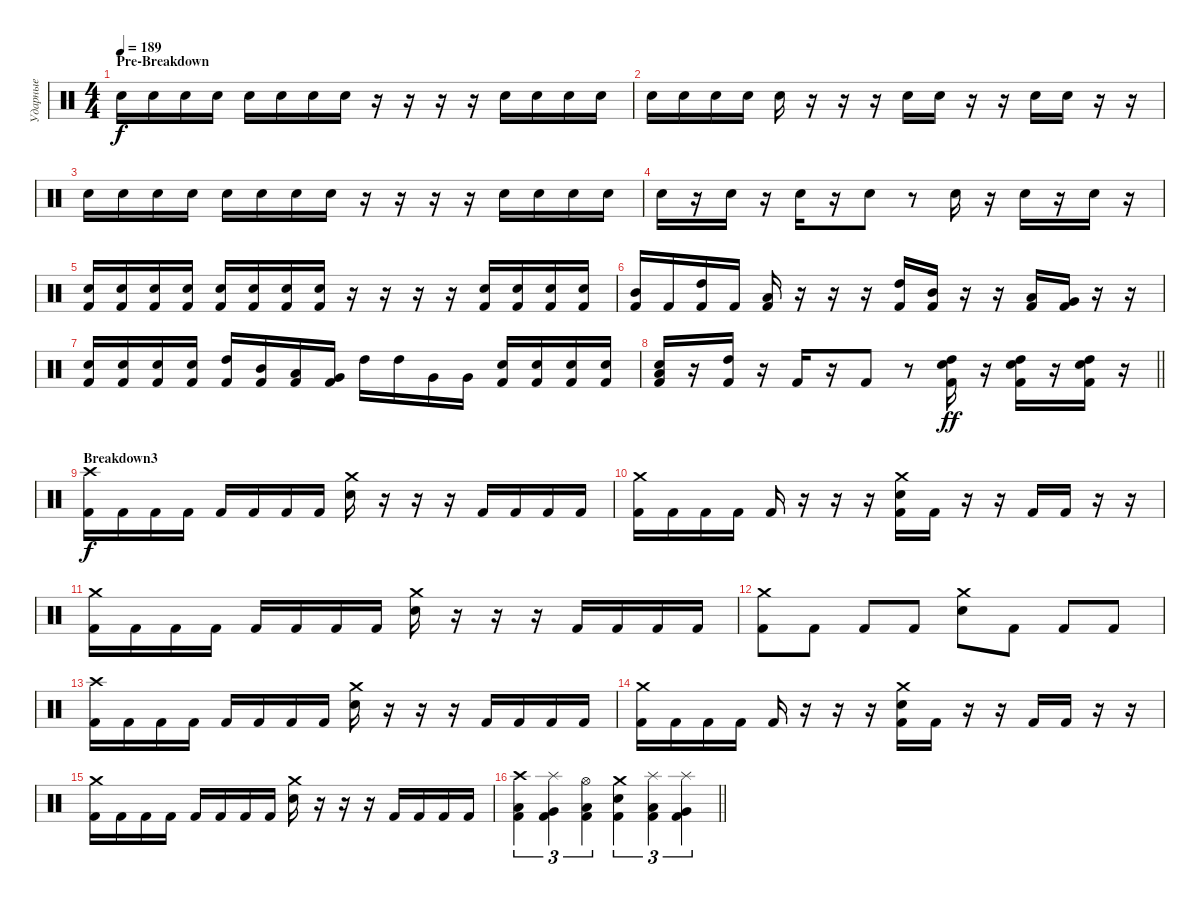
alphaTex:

\track ("Ударные" "Ударные") {instrument percussion}
\staff {score}
\articulation defaults
\ts (4 4)
\section ("" "Pre-Breakdown")
\tempo 189
\clef neutral
\ks c "Electric Snare (hit)".16{dy f} "Electric Snare (hit)".16 "Electric Snare (hit)".16 "Electric Snare (hit)".16 "Electric Snare (hit)".16 "Electric Snare (hit)".16 "Electric Snare (hit)".16 "Electric Snare (hit)".16
r.16 r.16 r.16 r.16 "Electric Snare (hit)".16 "Electric Snare (hit)".16 "Electric Snare (hit)".16 "Electric Snare (hit)".16 |
"Electric Snare (hit)".16 "Electric Snare (hit)".16 "Electric Snare (hit)".16 "Electric Snare (hit)".16 "Electric Snare (hit)".16 r.16 r.16 r.16 "Electric Snare (hit)".16 "Electric Snare (hit)".16 r.16 r.16 "Electric Snare (hit)".16 "Electric Snare (hit)".16 r.16 r.16 |
"Electric Snare (hit)".16 "Electric Snare (hit)".16 "Electric Snare (hit)".16 "Electric Snare (hit)".16 "Electric Snare (hit)".16 "Electric Snare (hit)".16 "Electric Snare (hit)".16 "Electric Snare (hit)".16 r.16 r.16 r.16 r.16 "Electric Snare (hit)".16 "Electric Snare (hit)".16 "Electric Snare (hit)".16 "Electric Snare (hit)".16 |
"Electric Snare (hit)".16 r.16 "Electric Snare (hit)".16 r.16 "Electric Snare (hit)".16 r.16 "Electric Snare (hit)".8 r.8 "Electric Snare (hit)".16 r.16 "Electric Snare (hit)".16 r.16 "Electric Snare (hit)".16 r.16 |
("Electric Snare (hit)" "Kick (hit) 2").16 ("Electric Snare (hit)" "Kick (hit) 2").16 ("Electric Snare (hit)" "Kick (hit) 2").16 ("Electric Snare (hit)" "Kick (hit) 2").16 ("Electric Snare (hit)" "Kick (hit) 2").16 ("Electric Snare (hit)" "Kick (hit) 2").16 ("Electric Snare (hit)" "Kick (hit) 2").16 ("Electric Snare (hit)" "Kick (hit) 2").16 r.16 r.16 r.16 r.16 ("Electric Snare (hit)" "Kick (hit) 2").16 ("Electric Snare (hit)" "Kick (hit) 2").16 ("Electric Snare (hit)" "Kick (hit) 2").16 ("Electric Snare (hit)" "Kick (hit) 2").16 |
("Mid Tom (hit)" "Kick (hit) 2").16 "Kick (hit) 2".16 ("High Tom (hit)" "Kick (hit) 2").16 "Kick (hit) 2".16 ("Low Tom (hit)" "Kick (hit) 2").16 r.16 r.16 r.16 ("High Tom (hit)" "Kick (hit) 2").16 ("Mid Tom (hit)" "Kick (hit) 2").16 r.16 r.16 ("Low Tom (hit)" "Kick (hit) 2").16 ("Very Low Tom (hit)" "Kick (hit) 2").16 r.16 r.16 |
("Electric Snare (hit)" "Kick (hit) 2").16 ("Electric Snare (hit)" "Kick (hit) 2").16 ("Electric Snare (hit)" "Kick (hit) 2").16 ("Electric Snare (hit)" "Kick (hit) 2").16 ("High Tom (hit)" "Kick (hit) 2").16 ("Mid Tom (hit)" "Kick (hit) 2").16 ("Low Tom (hit)" "Kick (hit) 2").16 ("Very Low Tom (hit)" "Kick (hit) 2").16 "High Tom (hit)".16 "High Tom (hit)".16 "Very Low Tom (hit)".16 "Very Low Tom (hit)".16 ("Electric Snare (hit)" "Kick (hit) 2").16 ("Electric Snare (hit)" "Kick (hit) 2").16 ("Electric Snare (hit)" "Kick (hit) 2").16 ("Electric Snare (hit)" "Kick (hit) 2").16 |
\barLineRight lightlight
("Electric Snare (hit)" "Low Tom (hit)" "Kick (hit) 2").16 r.16 ("High Tom (hit)" "Kick (hit) 2").16 r.16 "Kick (hit) 2".16 r.16 "Kick (hit) 2".8 r.8 ("High Tom (hit)" "Electric Snare (hit)" "Kick (hit) 2").16{dy ff} r.16 ("High Tom (hit)" "Electric Snare (hit)" "Kick (hit) 2").16 r.16 ("High Tom (hit)" "Electric Snare (hit)" "Kick (hit) 2").16 r.16 |
\section ("" "Breakdown3")
("Crash high (hit)" "Kick (hit) 2").16{dy f} "Kick (hit) 2".16 "Kick (hit) 2".16 "Kick (hit) 2".16 "Kick (hit) 2".16 "Kick (hit) 2".16 "Kick (hit) 2".16 "Kick (hit) 2".16 ("Crash medium (hit)" "Electric Snare (hit)").16 r.16 r.16 r.16 "Kick (hit) 2".16 "Kick (hit) 2".16 "Kick (hit) 2".16 "Kick (hit) 2".16 |
("Crash medium (hit)" "Kick (hit) 2").16 "Kick (hit) 2".16 "Kick (hit) 2".16 "Kick (hit) 2".16 "Kick (hit) 2".16 r.16 r.16 r.16 ("Crash medium (hit)" "Electric Snare (hit)" "Kick (hit) 2").16 "Kick (hit) 2".16 r.16 r.16 "Kick (hit) 2".16 "Kick (hit) 2".16 r.16 r.16 |
("Crash medium (hit)" "Kick (hit) 2").16 "Kick (hit) 2".16 "Kick (hit) 2".16 "Kick (hit) 2".16 "Kick (hit) 2".16 "Kick (hit) 2".16 "Kick (hit) 2".16 "Kick (hit) 2".16 ("Crash medium (hit)" "Electric Snare (hit)").16 r.16 r.16 r.16 "Kick (hit) 2".16 "Kick (hit) 2".16 "Kick (hit) 2".16 "Kick (hit) 2".16 |
("Crash medium (hit)" "Kick (hit) 2").8 "Kick (hit) 2".8 "Kick (hit) 2".8 "Kick (hit) 2".8 ("Crash medium (hit)" "Electric Snare (hit)").8 "Kick (hit) 2".8 "Kick (hit) 2".8 "Kick (hit) 2".8 |
("Crash high (hit)" "Kick (hit) 2").16 "Kick (hit) 2".16 "Kick (hit) 2".16 "Kick (hit) 2".16 "Kick (hit) 2".16 "Kick (hit) 2".16 "Kick (hit) 2".16 "Kick (hit) 2".16 ("Crash medium (hit)" "Electric Snare (hit)").16 r.16 r.16 r.16 "Kick (hit) 2".16 "Kick (hit) 2".16 "Kick (hit) 2".16 "Kick (hit) 2".16 |
("Crash medium (hit)" "Kick (hit) 2").16 "Kick (hit) 2".16 "Kick (hit) 2".16 "Kick (hit) 2".16 "Kick (hit) 2".16 r.16 r.16 r.16 ("Crash medium (hit)" "Electric Snare (hit)" "Kick (hit) 2").16 "Kick (hit) 2".16 r.16 r.16 "Kick (hit) 2".16 "Kick (hit) 2".16 r.16 r.16 |
("Crash medium (hit)" "Kick (hit) 2").16 "Kick (hit) 2".16 "Kick (hit) 2".16 "Kick (hit) 2".16 "Kick (hit) 2".16 "Kick (hit) 2".16 "Kick (hit) 2".16 "Kick (hit) 2".16 ("Crash medium (hit)" "Electric Snare (hit)").16 r.16 r.16 r.16 "Kick (hit) 2".16 "Kick (hit) 2".16 "Kick (hit) 2".16 "Kick (hit) 2".16 |
\barLineRight lightlight
("Crash high (hit)" "Low Tom (hit)" "Kick (hit) 2").4{tu (3 2)} ("Splash (hit)" "Very Low Tom (hit)" "Kick (hit) 2").4{tu (3 2)} ("Hi-Hat (open)" "Low Tom (hit)" "Kick (hit) 2").4{tu (3 2)} ("Crash medium (hit)" "Electric Snare (hit)" "Kick (hit) 2").4{tu (3 2)} ("Splash (hit)" "Low Tom (hit)" "Kick (hit) 2").4{tu (3 2)} ("Splash (hit)" "Very Low Tom (hit)" "Kick (hit) 2").4{tu (3 2)}
